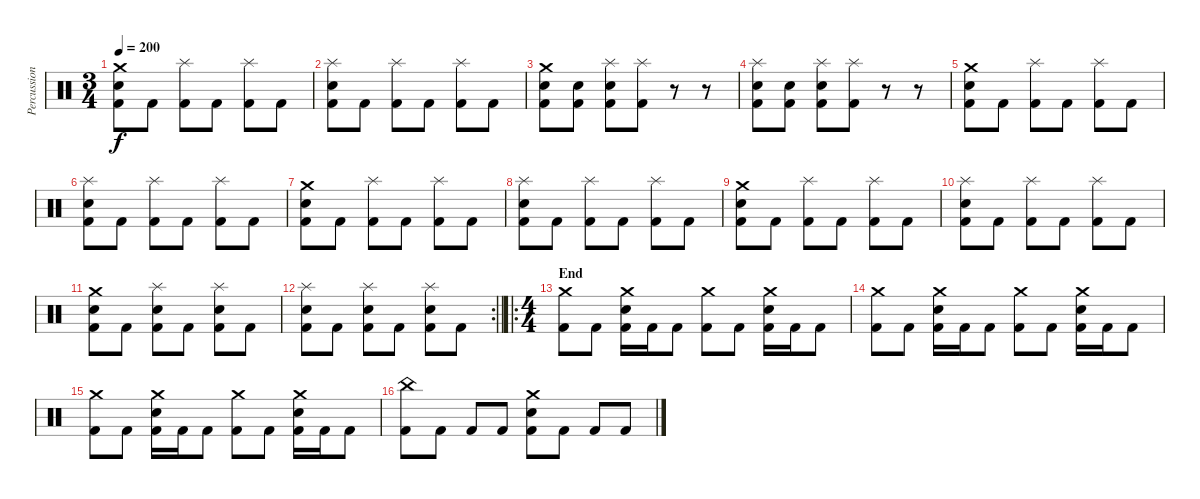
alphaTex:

\track ("Percussion" "Percussion") {instrument percussion}
\staff {score}
\articulation defaults
\ts (3 4)
\tempo 200
\clef neutral
\ks c
("Crash medium (hit)" "Electric Snare (hit)" "Kick (hit) 2").8{dy f} "Kick (hit) 2".8 ("Splash (hit)" "Kick (hit) 2").8 "Kick (hit) 2".8 ("Splash (hit)" "Kick (hit) 2").8 "Kick (hit) 2".8 |
("Splash (hit)" "Electric Snare (hit)" "Kick (hit) 2").8 "Kick (hit) 2".8 ("Splash (hit)" "Kick (hit) 2").8 "Kick (hit) 2".8 ("Splash (hit)" "Kick (hit) 2").8 "Kick (hit) 2".8 |
("Crash medium (hit)" "Electric Snare (hit)" "Kick (hit) 2").8 ("Electric Snare (hit)" "Kick (hit) 2").8 ("Splash (hit)" "Electric Snare (hit)" "Kick (hit) 2").8 ("Splash (hit)" "Kick (hit) 2").8 r.8 r.8 |
("Splash (hit)" "Electric Snare (hit)" "Kick (hit) 2").8 ("Electric Snare (hit)" "Kick (hit) 2").8 ("Splash (hit)" "Electric Snare (hit)" "Kick (hit) 2").8 ("Splash (hit)" "Kick (hit) 2").8 r.8 r.8 |
("Crash medium (hit)" "Electric Snare (hit)" "Kick (hit) 2").8 "Kick (hit) 2".8 ("Splash (hit)" "Kick (hit) 2").8 "Kick (hit) 2".8 ("Splash (hit)" "Kick (hit) 2").8 "Kick (hit) 2".8 |
("Splash (hit)" "Electric Snare (hit)" "Kick (hit) 2").8 "Kick (hit) 2".8 ("Splash (hit)" "Kick (hit) 2").8 "Kick (hit) 2".8 ("Splash (hit)" "Kick (hit) 2").8 "Kick (hit) 2".8 |
("Crash medium (hit)" "Electric Snare (hit)" "Kick (hit) 2").8 "Kick (hit) 2".8 ("Splash (hit)" "Kick (hit) 2").8 "Kick (hit) 2".8 ("Splash (hit)" "Kick (hit) 2").8 "Kick (hit) 2".8 |
("Splash (hit)" "Electric Snare (hit)" "Kick (hit) 2").8 "Kick (hit) 2".8 ("Splash (hit)" "Kick (hit) 2").8 "Kick (hit) 2".8 ("Splash (hit)" "Kick (hit) 2").8 "Kick (hit) 2".8 |
("Crash medium (hit)" "Electric Snare (hit)" "Kick (hit) 2").8 "Kick (hit) 2".8 ("Splash (hit)" "Kick (hit) 2").8 "Kick (hit) 2".8 ("Splash (hit)" "Kick (hit) 2").8 "Kick (hit) 2".8 |
("Splash (hit)" "Electric Snare (hit)" "Kick (hit) 2").8 "Kick (hit) 2".8 ("Splash (hit)" "Kick (hit) 2").8 "Kick (hit) 2".8 ("Splash (hit)" "Kick (hit) 2").8 "Kick (hit) 2".8 |
("Crash medium (hit)" "Electric Snare (hit)" "Kick (hit) 2").8 "Kick (hit) 2".8 ("Splash (hit)" "Electric Snare (hit)" "Kick (hit) 2").8 "Kick (hit) 2".8 ("Splash (hit)" "Electric Snare (hit)" "Kick (hit) 2").8 "Kick (hit) 2".8 |
\rc 2
\barLineRight lightlight
("Splash (hit)" "Electric Snare (hit)" "Kick (hit) 2").8 "Kick (hit) 2".8 ("Splash (hit)" "Electric Snare (hit)" "Kick (hit) 2").8 "Kick (hit) 2".8 ("Splash (hit)" "Electric Snare (hit)" "Kick (hit) 2").8 "Kick (hit) 2".8 |
\ro
\ts (4 4)
\section ("" "End")
("Crash medium (hit)" "Kick (hit) 2").8 "Kick (hit) 2".8 ("Crash medium (hit)" "Electric Snare (hit)" "Kick (hit) 2").16 "Kick (hit) 2".16 "Kick (hit) 2".8 ("Crash medium (hit)" "Kick (hit) 2").8 "Kick (hit) 2".8 ("Crash medium (hit)" "Electric Snare (hit)" "Kick (hit) 2").16 "Kick (hit) 2".16 "Kick (hit) 2".8 |
("Crash medium (hit)" "Kick (hit) 2").8 "Kick (hit) 2".8 ("Crash medium (hit)" "Electric Snare (hit)" "Kick (hit) 2").16 "Kick (hit) 2".16 "Kick (hit) 2".8 ("Crash medium (hit)" "Kick (hit) 2").8 "Kick (hit) 2".8 ("Crash medium (hit)" "Electric Snare (hit)" "Kick (hit) 2").16 "Kick (hit) 2".16 "Kick (hit) 2".8 |
("Crash medium (hit)" "Kick (hit) 2").8 "Kick (hit) 2".8 ("Crash medium (hit)" "Electric Snare (hit)" "Kick (hit) 2").16 "Kick (hit) 2".16 "Kick (hit) 2".8 ("Crash medium (hit)" "Kick (hit) 2").8 "Kick (hit) 2".8 ("Crash medium (hit)" "Electric Snare (hit)" "Kick (hit) 2").16 "Kick (hit) 2".16 "Kick (hit) 2".8 |
("China (hit)" "Kick (hit) 2").8 "Kick (hit) 2".8 "Kick (hit) 2".8 "Kick (hit) 2".8 ("Crash medium (hit)" "Electric Snare (hit)" "Kick (hit) 2").8 "Kick (hit) 2".8 "Kick (hit) 2".8 "Kick (hit) 2".8
